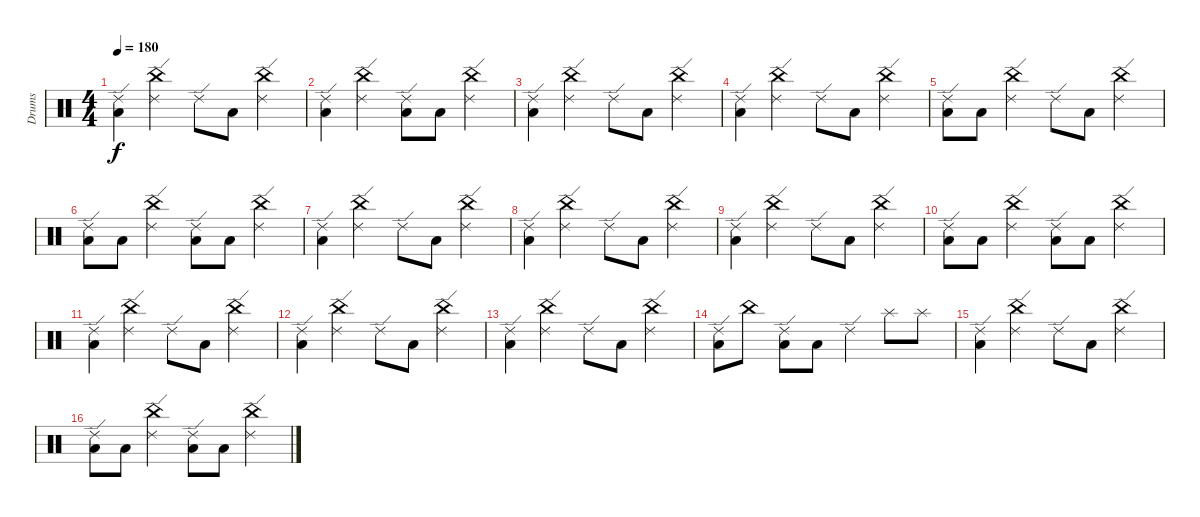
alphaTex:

\track ("Drums" "Drums") {instrument percussion}
\staff {score}
\articulation defaults
\ts (4 4)
\tempo 180
\clef neutral
\ks c
("Low Tom (hit)" "Ride (edge) 2").4{dy f} ("China (hit)" "Ride (edge) 2").4 "Ride (edge) 2".8 "Low Tom (hit)".8 ("China (hit)" "Ride (edge) 2").4 |
("Ride (edge) 2" "Low Tom (hit)").4 ("China (hit)" "Ride (edge) 2").4 ("Ride (edge) 2" "Low Tom (hit)").8 "Low Tom (hit)".8 ("China (hit)" "Ride (edge) 2").4 |
("Low Tom (hit)" "Ride (edge) 2").4 ("China (hit)" "Ride (edge) 2").4 "Ride (edge) 2".8 "Low Tom (hit)".8 ("China (hit)" "Ride (edge) 2").4 |
("Low Tom (hit)" "Ride (edge) 2").4 ("China (hit)" "Ride (edge) 2").4 "Ride (edge) 2".8 "Low Tom (hit)".8 ("China (hit)" "Ride (edge) 2").4 |
("Low Tom (hit)" "Ride (edge) 2").8 "Low Tom (hit)".8 ("Ride (edge) 2" "China (hit)").4 "Ride (edge) 2".8 "Low Tom (hit)".8 ("Ride (edge) 2" "China (hit)").4 |
("Low Tom (hit)" "Ride (edge) 2").8 "Low Tom (hit)".8 ("Ride (edge) 2" "China (hit)").4 ("Ride (edge) 2" "Low Tom (hit)").8 "Low Tom (hit)".8 ("Ride (edge) 2" "China (hit)").4 |
("Low Tom (hit)" "Ride (edge) 2").4 ("China (hit)" "Ride (edge) 2").4 "Ride (edge) 2".8 "Low Tom (hit)".8 ("China (hit)" "Ride (edge) 2").4 |
("Ride (edge) 2" "Low Tom (hit)").4 ("China (hit)" "Ride (edge) 2").4 "Ride (edge) 2".8 "Low Tom (hit)".8 ("China (hit)" "Ride (edge) 2").4 |
("Ride (edge) 2" "Low Tom (hit)").4 ("China (hit)" "Ride (edge) 2").4 "Ride (edge) 2".8 "Low Tom (hit)".8 ("China (hit)" "Ride (edge) 2").4 |
("Low Tom (hit)" "Ride (edge) 2").8 "Low Tom (hit)".8 ("China (hit)" "Ride (edge) 2").4 ("Low Tom (hit)" "Ride (edge) 2").8 "Low Tom (hit)".8 ("China (hit)" "Ride (edge) 2").4 |
("Low Tom (hit)" "Ride (edge) 2").4 ("Ride (edge) 2" "China (hit)").4 "Ride (edge) 2".8 "Low Tom (hit)".8 ("Ride (edge) 2" "China (hit)").4 |
("Ride (edge) 2" "Low Tom (hit)").4 ("Ride (edge) 2" "China (hit)").4 "Ride (edge) 2".8 "Low Tom (hit)".8 ("Ride (edge) 2" "China (hit)").4 |
("Ride (edge) 2" "Low Tom (hit)").4 ("Ride (edge) 2" "China (hit)").4 "Ride (edge) 2".8 "Low Tom (hit)".8 ("Ride (edge) 2" "China (hit)").4 |
("Low Tom (hit)" "Ride (edge) 2").8 "China (hit)".8 ("Low Tom (hit)" "Ride (edge) 2").8 "Low Tom (hit)".8 "Ride (edge) 2".4 "Splash (hit)".8 "Splash (hit)".8 |
("Ride (edge) 2" "Low Tom (hit)").4 ("China (hit)" "Ride (edge) 2").4 "Ride (edge) 2".8 "Low Tom (hit)".8 ("China (hit)" "Ride (edge) 2").4 |
("Low Tom (hit)" "Ride (edge) 2").8 "Low Tom (hit)".8 ("China (hit)" "Ride (edge) 2").4 ("Low Tom (hit)" "Ride (edge) 2").8 "Low Tom (hit)".8 ("China (hit)" "Ride (edge) 2").4
